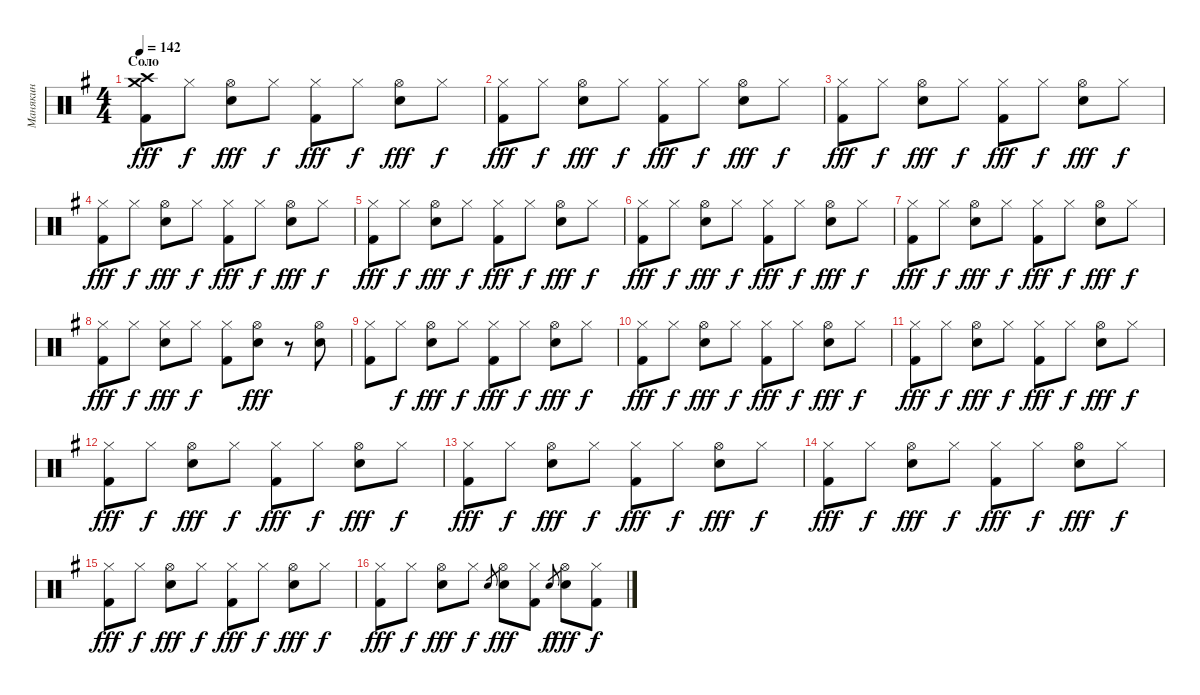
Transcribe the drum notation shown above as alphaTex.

\track ("Манякин" "Манякин") {instrument percussion}
\staff {score}
\articulation defaults
\ts (4 4)
\section ("" "Соло")
\tempo 142
\clef neutral
\ks eminor
("Crash medium (hit)" "Crash high (hit)" "Kick (hit) 2").8{dy fff} "Hi-Hat (closed)".8{dy f} ("Hi-Hat (open)" "Electric Snare (hit)").8{dy fff} "Hi-Hat (closed)".8{dy f} ("Hi-Hat (closed)" "Kick (hit) 2").8{dy fff} "Hi-Hat (closed)".8{dy f} ("Hi-Hat (open)" "Electric Snare (hit)").8{dy fff} "Hi-Hat (closed)".8{dy f} |
("Hi-Hat (closed)" "Kick (hit) 2").8{dy fff} "Hi-Hat (closed)".8{dy f} ("Hi-Hat (open)" "Electric Snare (hit)").8{dy fff} "Hi-Hat (closed)".8{dy f} ("Hi-Hat (closed)" "Kick (hit) 2").8{dy fff} "Hi-Hat (closed)".8{dy f} ("Hi-Hat (open)" "Electric Snare (hit)").8{dy fff} "Hi-Hat (closed)".8{dy f} |
("Hi-Hat (closed)" "Kick (hit) 2").8{dy fff} "Hi-Hat (closed)".8{dy f} ("Hi-Hat (open)" "Electric Snare (hit)").8{dy fff} "Hi-Hat (closed)".8{dy f} ("Hi-Hat (closed)" "Kick (hit) 2").8{dy fff} "Hi-Hat (closed)".8{dy f} ("Hi-Hat (open)" "Electric Snare (hit)").8{dy fff} "Hi-Hat (closed)".8{dy f} |
("Hi-Hat (closed)" "Kick (hit) 2").8{dy fff} "Hi-Hat (closed)".8{dy f} ("Hi-Hat (open)" "Electric Snare (hit)").8{dy fff} "Hi-Hat (closed)".8{dy f} ("Hi-Hat (closed)" "Kick (hit) 2").8{dy fff} "Hi-Hat (closed)".8{dy f} ("Hi-Hat (open)" "Electric Snare (hit)").8{dy fff} "Hi-Hat (closed)".8{dy f} |
("Hi-Hat (closed)" "Kick (hit) 2").8{dy fff} "Hi-Hat (closed)".8{dy f} ("Hi-Hat (open)" "Electric Snare (hit)").8{dy fff} "Hi-Hat (closed)".8{dy f} ("Hi-Hat (closed)" "Kick (hit) 2").8{dy fff} "Hi-Hat (closed)".8{dy f} ("Hi-Hat (open)" "Electric Snare (hit)").8{dy fff} "Hi-Hat (closed)".8{dy f} |
("Hi-Hat (closed)" "Kick (hit) 2").8{dy fff} "Hi-Hat (closed)".8{dy f} ("Hi-Hat (open)" "Electric Snare (hit)").8{dy fff} "Hi-Hat (closed)".8{dy f} ("Hi-Hat (closed)" "Kick (hit) 2").8{dy fff} "Hi-Hat (closed)".8{dy f} ("Hi-Hat (open)" "Electric Snare (hit)").8{dy fff} "Hi-Hat (closed)".8{dy f} |
("Hi-Hat (closed)" "Kick (hit) 2").8{dy fff} "Hi-Hat (closed)".8{dy f} ("Hi-Hat (open)" "Electric Snare (hit)").8{dy fff} "Hi-Hat (closed)".8{dy f} ("Hi-Hat (closed)" "Kick (hit) 2").8{dy fff} "Hi-Hat (closed)".8{dy f} ("Hi-Hat (open)" "Electric Snare (hit)").8{dy fff} "Hi-Hat (closed)".8{dy f} |
("Hi-Hat (closed)" "Kick (hit) 2").8{dy fff} "Hi-Hat (closed)".8{dy f} ("Hi-Hat (closed)" "Electric Snare (hit)").8{dy fff} "Hi-Hat (closed)".8{dy f} ("Hi-Hat (closed)" "Kick (hit) 2").8 ("Hi-Hat (open)" "Electric Snare (hit)").8{dy fff} r.8 ("Hi-Hat (open)" "Electric Snare (hit)").8 |
("Hi-Hat (closed)" "Kick (hit) 2").8 "Hi-Hat (closed)".8{dy f} ("Hi-Hat (open)" "Electric Snare (hit)").8{dy fff} "Hi-Hat (closed)".8{dy f} ("Hi-Hat (closed)" "Kick (hit) 2").8{dy fff} "Hi-Hat (closed)".8{dy f} ("Hi-Hat (open)" "Electric Snare (hit)").8{dy fff} "Hi-Hat (closed)".8{dy f} |
("Hi-Hat (closed)" "Kick (hit) 2").8{dy fff} "Hi-Hat (closed)".8{dy f} ("Hi-Hat (open)" "Electric Snare (hit)").8{dy fff} "Hi-Hat (closed)".8{dy f} ("Hi-Hat (closed)" "Kick (hit) 2").8{dy fff} "Hi-Hat (closed)".8{dy f} ("Hi-Hat (open)" "Electric Snare (hit)").8{dy fff} "Hi-Hat (closed)".8{dy f} |
("Hi-Hat (closed)" "Kick (hit) 2").8{dy fff} "Hi-Hat (closed)".8{dy f} ("Hi-Hat (open)" "Electric Snare (hit)").8{dy fff} "Hi-Hat (closed)".8{dy f} ("Hi-Hat (closed)" "Kick (hit) 2").8{dy fff} "Hi-Hat (closed)".8{dy f} ("Hi-Hat (open)" "Electric Snare (hit)").8{dy fff} "Hi-Hat (closed)".8{dy f} |
("Hi-Hat (closed)" "Kick (hit) 2").8{dy fff} "Hi-Hat (closed)".8{dy f} ("Hi-Hat (open)" "Electric Snare (hit)").8{dy fff} "Hi-Hat (closed)".8{dy f} ("Hi-Hat (closed)" "Kick (hit) 2").8{dy fff} "Hi-Hat (closed)".8{dy f} ("Hi-Hat (open)" "Electric Snare (hit)").8{dy fff} "Hi-Hat (closed)".8{dy f} |
("Hi-Hat (closed)" "Kick (hit) 2").8{dy fff} "Hi-Hat (closed)".8{dy f} ("Hi-Hat (open)" "Electric Snare (hit)").8{dy fff} "Hi-Hat (closed)".8{dy f} ("Hi-Hat (closed)" "Kick (hit) 2").8{dy fff} "Hi-Hat (closed)".8{dy f} ("Hi-Hat (open)" "Electric Snare (hit)").8{dy fff} "Hi-Hat (closed)".8{dy f} |
("Hi-Hat (closed)" "Kick (hit) 2").8{dy fff} "Hi-Hat (closed)".8{dy f} ("Hi-Hat (open)" "Electric Snare (hit)").8{dy fff} "Hi-Hat (closed)".8{dy f} ("Hi-Hat (closed)" "Kick (hit) 2").8{dy fff} "Hi-Hat (closed)".8{dy f} ("Hi-Hat (open)" "Electric Snare (hit)").8{dy fff} "Hi-Hat (closed)".8{dy f} |
("Hi-Hat (closed)" "Kick (hit) 2").8{dy fff} "Hi-Hat (closed)".8{dy f} ("Hi-Hat (open)" "Electric Snare (hit)").8{dy fff} "Hi-Hat (closed)".8{dy f} ("Hi-Hat (closed)" "Kick (hit) 2").8{dy fff} "Hi-Hat (closed)".8{dy f} ("Hi-Hat (open)" "Electric Snare (hit)").8{dy fff} "Hi-Hat (closed)".8{dy f} |
("Hi-Hat (closed)" "Kick (hit) 2").8{dy fff} "Hi-Hat (closed)".8{dy f} ("Hi-Hat (open)" "Electric Snare (hit)").8{dy fff} "Hi-Hat (closed)".8{dy f} "Electric Snare (hit)".8{gr} ("Hi-Hat (open)" "Electric Snare (hit)").8{dy fff} ("Hi-Hat (closed)" "Kick (hit) 2").8 "Electric Snare (hit)".8{gr dy f} ("Hi-Hat (open)" "Electric Snare (hit)").8{dy fff} ("Hi-Hat (closed)" "Kick (hit) 2").8{dy f}
